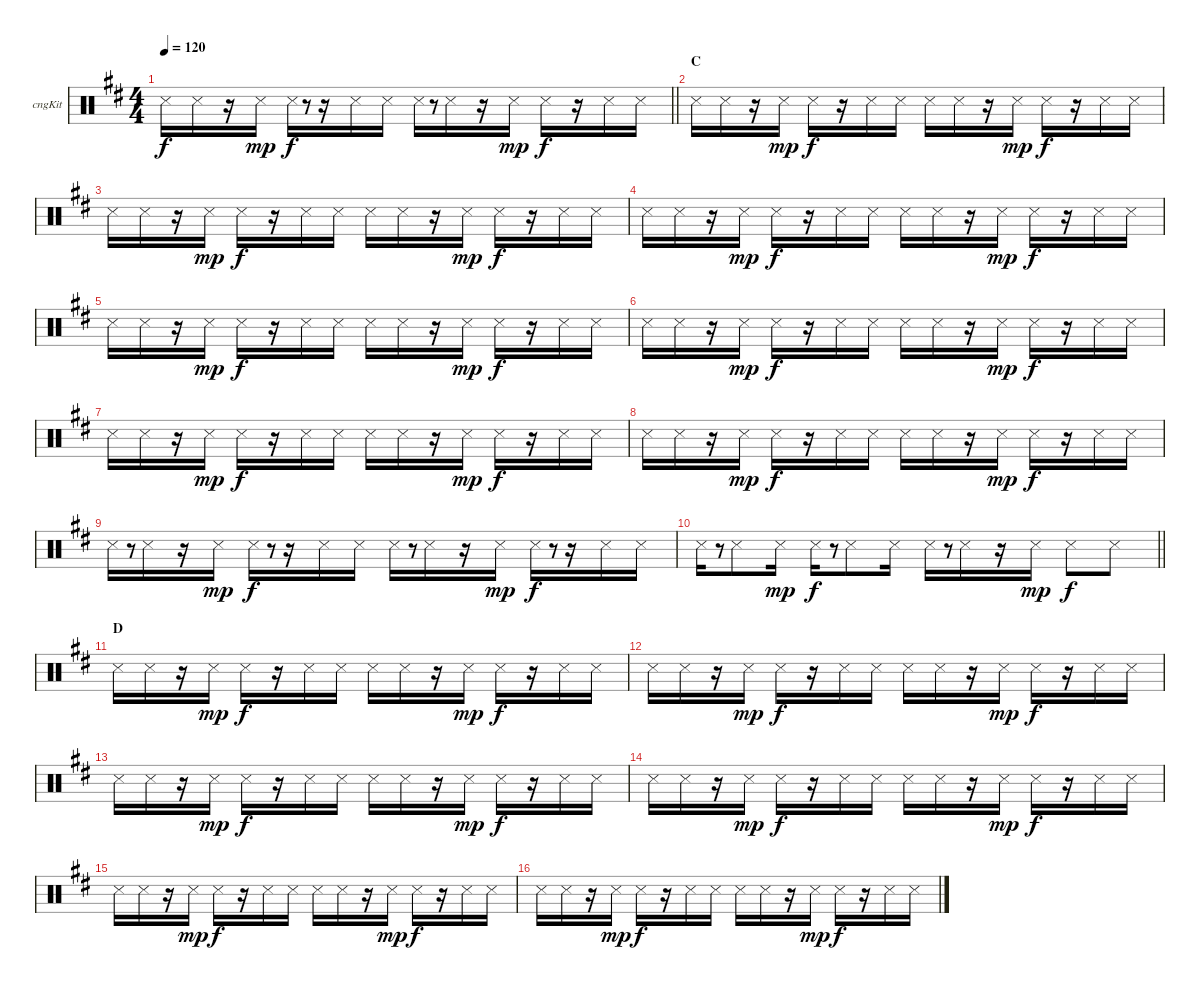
\bracketExtendMode groupsimilarinstruments
\firstSystemTrackNameOrientation horizontal
\otherSystemsTrackNameOrientation horizontal
\track ("Congas" "cngKit") {instrument percussion}
\staff {score}
\articulation defaults
\ts (4 4)
\tempo 120
\clef neutral
\barLineRight lightlight
\ks d "Snare (side stick) 3".16{dy f} "Snare (side stick) 3".16
r.16 "Snare (side stick) 3".16{dy mp} "Snare (side stick) 3".16{dy f} r.8{gr} r.16 "Snare (side stick) 3".16 "Snare (side stick) 3".16 "Snare (side stick) 3".16 r.8{gr} "Snare (side stick) 3".16 r.16 "Snare (side stick) 3".16{dy mp} "Snare (side stick) 3".16{dy f} r.16 "Snare (side stick) 3".16 "Snare (side stick) 3".16 |
\section ("" "C")
"Snare (side stick) 3".16 "Snare (side stick) 3".16 r.16 "Snare (side stick) 3".16{dy mp} "Snare (side stick) 3".16{dy f} r.16 "Snare (side stick) 3".16 "Snare (side stick) 3".16 "Snare (side stick) 3".16 "Snare (side stick) 3".16 r.16 "Snare (side stick) 3".16{dy mp} "Snare (side stick) 3".16{dy f} r.16 "Snare (side stick) 3".16 "Snare (side stick) 3".16 |
"Snare (side stick) 3".16 "Snare (side stick) 3".16 r.16 "Snare (side stick) 3".16{dy mp} "Snare (side stick) 3".16{dy f} r.16 "Snare (side stick) 3".16 "Snare (side stick) 3".16 "Snare (side stick) 3".16 "Snare (side stick) 3".16 r.16 "Snare (side stick) 3".16{dy mp} "Snare (side stick) 3".16{dy f} r.16 "Snare (side stick) 3".16 "Snare (side stick) 3".16 |
"Snare (side stick) 3".16 "Snare (side stick) 3".16 r.16 "Snare (side stick) 3".16{dy mp} "Snare (side stick) 3".16{dy f} r.16 "Snare (side stick) 3".16 "Snare (side stick) 3".16 "Snare (side stick) 3".16 "Snare (side stick) 3".16 r.16 "Snare (side stick) 3".16{dy mp} "Snare (side stick) 3".16{dy f} r.16 "Snare (side stick) 3".16 "Snare (side stick) 3".16 |
"Snare (side stick) 3".16 "Snare (side stick) 3".16 r.16 "Snare (side stick) 3".16{dy mp} "Snare (side stick) 3".16{dy f} r.16 "Snare (side stick) 3".16 "Snare (side stick) 3".16 "Snare (side stick) 3".16 "Snare (side stick) 3".16 r.16 "Snare (side stick) 3".16{dy mp} "Snare (side stick) 3".16{dy f} r.16 "Snare (side stick) 3".16 "Snare (side stick) 3".16 |
"Snare (side stick) 3".16 "Snare (side stick) 3".16 r.16 "Snare (side stick) 3".16{dy mp} "Snare (side stick) 3".16{dy f} r.16 "Snare (side stick) 3".16 "Snare (side stick) 3".16 "Snare (side stick) 3".16 "Snare (side stick) 3".16 r.16 "Snare (side stick) 3".16{dy mp} "Snare (side stick) 3".16{dy f} r.16 "Snare (side stick) 3".16 "Snare (side stick) 3".16 |
"Snare (side stick) 3".16 "Snare (side stick) 3".16 r.16 "Snare (side stick) 3".16{dy mp} "Snare (side stick) 3".16{dy f} r.16 "Snare (side stick) 3".16 "Snare (side stick) 3".16 "Snare (side stick) 3".16 "Snare (side stick) 3".16 r.16 "Snare (side stick) 3".16{dy mp} "Snare (side stick) 3".16{dy f} r.16 "Snare (side stick) 3".16 "Snare (side stick) 3".16 |
"Snare (side stick) 3".16 "Snare (side stick) 3".16 r.16 "Snare (side stick) 3".16{dy mp} "Snare (side stick) 3".16{dy f} r.16 "Snare (side stick) 3".16 "Snare (side stick) 3".16 "Snare (side stick) 3".16 "Snare (side stick) 3".16 r.16 "Snare (side stick) 3".16{dy mp} "Snare (side stick) 3".16{dy f} r.16 "Snare (side stick) 3".16 "Snare (side stick) 3".16 |
"Snare (side stick) 3".16 r.8{gr} "Snare (side stick) 3".16 r.16 "Snare (side stick) 3".16{dy mp} "Snare (side stick) 3".16{dy f} r.8{gr} r.16 "Snare (side stick) 3".16 "Snare (side stick) 3".16 "Snare (side stick) 3".16 r.8{gr} "Snare (side stick) 3".16 r.16 "Snare (side stick) 3".16{dy mp} "Snare (side stick) 3".16{dy f} r.8{gr} r.16 "Snare (side stick) 3".16 "Snare (side stick) 3".16 |
\barLineRight lightlight "Snare (side stick) 3".16
r.8{gr} "Snare (side stick) 3".8 "Snare (side stick) 3".16{dy mp} "Snare (side stick) 3".16{dy f} r.8{gr} "Snare (side stick) 3".8 "Snare (side stick) 3".16 "Snare (side stick) 3".16 r.8{gr} "Snare (side stick) 3".16 r.16 "Snare (side stick) 3".16{dy mp} "Snare (side stick) 3".8{dy f} "Snare (side stick) 3".8 |
\section ("" "D")
"Snare (side stick) 3".16 "Snare (side stick) 3".16 r.16 "Snare (side stick) 3".16{dy mp} "Snare (side stick) 3".16{dy f} r.16 "Snare (side stick) 3".16 "Snare (side stick) 3".16 "Snare (side stick) 3".16 "Snare (side stick) 3".16 r.16 "Snare (side stick) 3".16{dy mp} "Snare (side stick) 3".16{dy f} r.16 "Snare (side stick) 3".16 "Snare (side stick) 3".16 |
"Snare (side stick) 3".16 "Snare (side stick) 3".16 r.16 "Snare (side stick) 3".16{dy mp} "Snare (side stick) 3".16{dy f} r.16 "Snare (side stick) 3".16 "Snare (side stick) 3".16 "Snare (side stick) 3".16 "Snare (side stick) 3".16 r.16 "Snare (side stick) 3".16{dy mp} "Snare (side stick) 3".16{dy f} r.16 "Snare (side stick) 3".16 "Snare (side stick) 3".16 |
"Snare (side stick) 3".16 "Snare (side stick) 3".16 r.16 "Snare (side stick) 3".16{dy mp} "Snare (side stick) 3".16{dy f} r.16 "Snare (side stick) 3".16 "Snare (side stick) 3".16 "Snare (side stick) 3".16 "Snare (side stick) 3".16 r.16 "Snare (side stick) 3".16{dy mp} "Snare (side stick) 3".16{dy f} r.16 "Snare (side stick) 3".16 "Snare (side stick) 3".16 |
"Snare (side stick) 3".16 "Snare (side stick) 3".16 r.16 "Snare (side stick) 3".16{dy mp} "Snare (side stick) 3".16{dy f} r.16 "Snare (side stick) 3".16 "Snare (side stick) 3".16 "Snare (side stick) 3".16 "Snare (side stick) 3".16 r.16 "Snare (side stick) 3".16{dy mp} "Snare (side stick) 3".16{dy f} r.16 "Snare (side stick) 3".16 "Snare (side stick) 3".16 |
"Snare (side stick) 3".16 "Snare (side stick) 3".16 r.16 "Snare (side stick) 3".16{dy mp} "Snare (side stick) 3".16{dy f} r.16 "Snare (side stick) 3".16 "Snare (side stick) 3".16 "Snare (side stick) 3".16 "Snare (side stick) 3".16 r.16 "Snare (side stick) 3".16{dy mp} "Snare (side stick) 3".16{dy f} r.16 "Snare (side stick) 3".16 "Snare (side stick) 3".16 |
"Snare (side stick) 3".16 "Snare (side stick) 3".16 r.16 "Snare (side stick) 3".16{dy mp} "Snare (side stick) 3".16{dy f} r.16 "Snare (side stick) 3".16 "Snare (side stick) 3".16 "Snare (side stick) 3".16 "Snare (side stick) 3".16 r.16 "Snare (side stick) 3".16{dy mp} "Snare (side stick) 3".16{dy f} r.16 "Snare (side stick) 3".16 "Snare (side stick) 3".16
